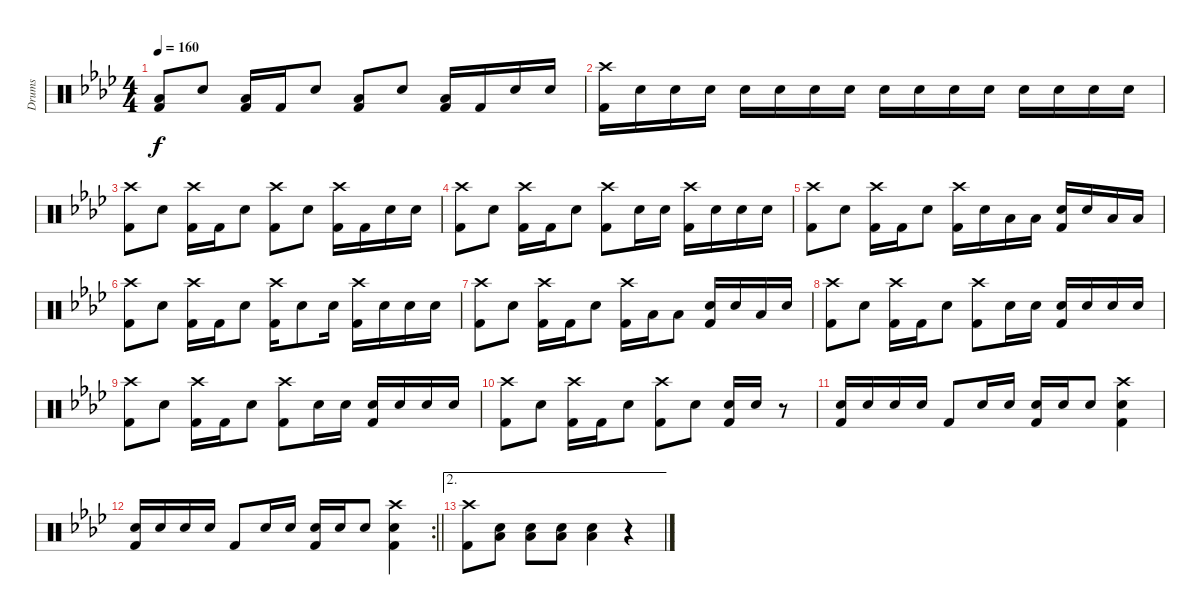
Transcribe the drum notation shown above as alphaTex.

\track ("Drums" "Drums") {instrument percussion}
\staff {score}
\articulation defaults
\ts (4 4)
\tempo 160
\clef neutral
\ks ab
("Low Floor Tom (hit)" "Kick (hit) 2").8{dy f} "Electric Snare (hit)".8 ("Low Floor Tom (hit)" "Kick (hit) 2").16 "Kick (hit) 2".16 "Electric Snare (hit)".8 ("Low Floor Tom (hit)" "Kick (hit) 2").8 "Electric Snare (hit)".8 ("Low Floor Tom (hit)" "Kick (hit) 2").16 "Kick (hit) 2".16 "Electric Snare (hit)".16 "Electric Snare (hit)".16 |
("Crash high (hit)" "Kick (hit) 2").16 "Electric Snare (hit)".16 "Electric Snare (hit)".16 "Electric Snare (hit)".16 "Electric Snare (hit)".16 "Electric Snare (hit)".16 "Electric Snare (hit)".16 "Electric Snare (hit)".16 "Electric Snare (hit)".16 "Electric Snare (hit)".16 "Electric Snare (hit)".16 "Electric Snare (hit)".16 "Electric Snare (hit)".16 "Electric Snare (hit)".16 "Electric Snare (hit)".16 "Electric Snare (hit)".16 |
("Crash high (hit)" "Kick (hit) 2").8 "Electric Snare (hit)".8 ("Crash high (hit)" "Kick (hit) 2").16 "Kick (hit) 2".16 "Electric Snare (hit)".8 ("Crash high (hit)" "Kick (hit) 2").8 "Electric Snare (hit)".8 ("Crash high (hit)" "Kick (hit) 2").16 "Kick (hit) 2".16 "Electric Snare (hit)".16 "Electric Snare (hit)".16 |
("Crash high (hit)" "Kick (hit) 2").8 "Electric Snare (hit)".8 ("Crash high (hit)" "Kick (hit) 2").16 "Kick (hit) 2".16 "Electric Snare (hit)".8 ("Crash high (hit)" "Kick (hit) 2").8 "Electric Snare (hit)".16 "Electric Snare (hit)".16 ("Crash high (hit)" "Kick (hit) 2").16 "Electric Snare (hit)".16 "Electric Snare (hit)".16 "Electric Snare (hit)".16 |
("Crash high (hit)" "Kick (hit) 2").8 "Electric Snare (hit)".8 ("Crash high (hit)" "Kick (hit) 2").16 "Kick (hit) 2".16 "Electric Snare (hit)".8 ("Crash high (hit)" "Kick (hit) 2").16 "Electric Snare (hit)".16 "Low Tom (hit)".16 "Low Tom (hit)".16 ("Electric Snare (hit)" "Kick (hit) 2").16 "Electric Snare (hit)".16 "Low Floor Tom (hit)".16 "Low Floor Tom (hit)".16 |
("Crash high (hit)" "Kick (hit) 2").8 "Electric Snare (hit)".8 ("Crash high (hit)" "Kick (hit) 2").16 "Kick (hit) 2".16 "Electric Snare (hit)".8 ("Crash high (hit)" "Kick (hit) 2").16 "Electric Snare (hit)".8 "Electric Snare (hit)".16 ("Crash high (hit)" "Kick (hit) 2").16 "Electric Snare (hit)".16 "Electric Snare (hit)".16 "Electric Snare (hit)".16 |
("Crash high (hit)" "Kick (hit) 2").8 "Electric Snare (hit)".8 ("Crash high (hit)" "Kick (hit) 2").16 "Kick (hit) 2".16 "Electric Snare (hit)".8 ("Crash high (hit)" "Kick (hit) 2").16 "Low Tom (hit)".16 "Low Floor Tom (hit)".8 ("Electric Snare (hit)" "Kick (hit) 2").16 "Electric Snare (hit)".16 "Low Floor Tom (hit)".16 "Electric Snare (hit)".16 |
("Crash high (hit)" "Kick (hit) 2").8 "Electric Snare (hit)".8 ("Crash high (hit)" "Kick (hit) 2").16 "Kick (hit) 2".16 "Electric Snare (hit)".8 ("Crash high (hit)" "Kick (hit) 2").8 "Electric Snare (hit)".16 "Electric Snare (hit)".16 ("Electric Snare (hit)" "Kick (hit) 2").16 "Electric Snare (hit)".16 "Electric Snare (hit)".16 "Electric Snare (hit)".16 |
("Crash high (hit)" "Kick (hit) 2").8 "Electric Snare (hit)".8 ("Crash high (hit)" "Kick (hit) 2").16 "Kick (hit) 2".16 "Electric Snare (hit)".8 ("Crash high (hit)" "Kick (hit) 2").8 "Electric Snare (hit)".16 "Electric Snare (hit)".16 ("Electric Snare (hit)" "Kick (hit) 2").16 "Electric Snare (hit)".16 "Electric Snare (hit)".16 "Electric Snare (hit)".16 |
("Crash high (hit)" "Kick (hit) 2").8 "Electric Snare (hit)".8 ("Crash high (hit)" "Kick (hit) 2").16 "Kick (hit) 2".16 "Electric Snare (hit)".8 ("Crash high (hit)" "Kick (hit) 2").8 "Electric Snare (hit)".8 ("Electric Snare (hit)" "Kick (hit) 2").16 "Electric Snare (hit)".16 r.8 |
("Electric Snare (hit)" "Kick (hit) 2").16 "Electric Snare (hit)".16 "Electric Snare (hit)".16 "Electric Snare (hit)".16 "Kick (hit) 2".8 "Electric Snare (hit)".16 "Electric Snare (hit)".16 ("Electric Snare (hit)" "Kick (hit) 2").16 "Electric Snare (hit)".16 "Electric Snare (hit)".8 ("Crash high (hit)" "Electric Snare (hit)" "Kick (hit) 2").4 |
\rc 2
\barLineRight lightlight
("Electric Snare (hit)" "Kick (hit) 2").16 "Electric Snare (hit)".16 "Electric Snare (hit)".16 "Electric Snare (hit)".16 "Kick (hit) 2".8 "Electric Snare (hit)".16 "Electric Snare (hit)".16 ("Electric Snare (hit)" "Kick (hit) 2").16 "Electric Snare (hit)".16 "Electric Snare (hit)".8 ("Crash high (hit)" "Electric Snare (hit)" "Kick (hit) 2").4 |
\ae 2
("Crash high (hit)" "Kick (hit) 2").8 ("Electric Snare (hit)" "Low Floor Tom (hit)").8 ("Electric Snare (hit)" "Low Floor Tom (hit)").8 ("Electric Snare (hit)" "Low Floor Tom (hit)").8 ("Electric Snare (hit)" "Low Floor Tom (hit)").4 r.4
